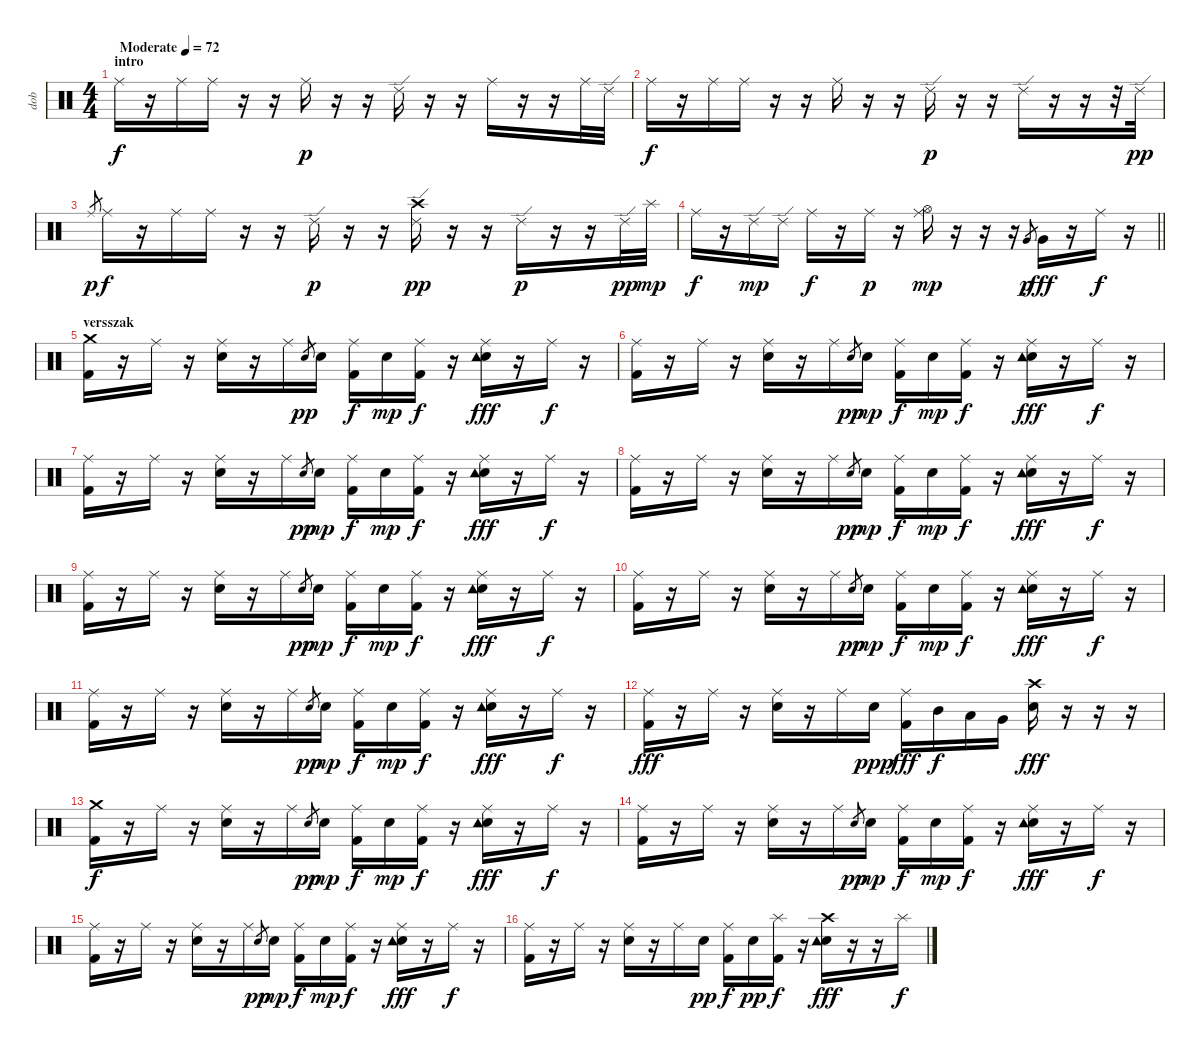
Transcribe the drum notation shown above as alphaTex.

\track ("dob" "dob") {instrument percussion}
\staff {score}
\articulation defaults
\ts (4 4)
\section ("" "intro")
\tempo (72 "Moderate")
\clef neutral
\ks c "Ride (middle)".16{dy f}
r.16 "Ride (middle)".16 "Ride (middle)".16 r.16 r.16 "Ride (middle)".16{dy p} r.16 r.16 "Ride (edge) 2".16 r.16 r.16 "Ride (middle)".16 r.16 r.16 "Ride (middle)".32 "Ride (edge) 2".32 |
"Ride (middle)".16{dy f} r.16 "Ride (middle)".16 "Ride (middle)".16 r.16 r.16 "Ride (middle)".16 r.16 r.16 "Ride (edge) 2".16{dy p} r.16 r.16 "Ride (edge) 2".16 r.16 r.16 r.32 "Ride (edge) 2".32{dy pp} |
"Ride (middle)".8{gr dy p} "Ride (middle)".16{dy f} r.16 "Ride (middle)".16 "Ride (middle)".16 r.16 r.16 "Ride (edge) 2".16{dy p} r.16 r.16 ("Ride (edge) 2" "Crash high (hit)").16{dy pp} r.16 r.16 "Ride (edge) 2".16{dy p} r.16 r.16 "Ride (edge) 2".32{dy pp} "Splash (hit)".32{dy mp} |
\barLineRight lightlight "Ride (middle)".16{dy f}
r.16 "Ride (edge) 2".16{dy mp} "Ride (edge) 2".16 "Ride (middle)".16{dy f} r.16 "Ride (middle)".16{dy p} r.16 ("Ride (middle)" "Hi-Hat (open)").16{dy mp} r.16 r.16 r.16 "Very Low Tom (hit)".8{gr dy p} "Very Low Tom (hit)".16{dy fff} r.16 "Ride (middle)".16{dy f} r.16 |
\section ("" "versszak")
("Kick (hit) 2" "Crash medium (hit)").16 r.16 "Ride (middle)".16 r.16 ("Ride (middle)" "Snare (hit) 2").16 r.16 "Ride (middle)".16 "Snare (hit) 2".8{gr dy pp} "Snare (hit) 2".16 ("Ride (middle)" "Kick (hit) 2").16{dy f} "Snare (hit) 2".16{dy mp} ("Ride (middle)" "Kick (hit) 2").16{dy f} r.16 ("Ride (middle)" "Snare (hit) 2" "Tambourine (hit)").16{dy fff} r.16 "Ride (middle)".16{dy f} r.16 |
("Kick (hit) 2" "Ride (middle)").16 r.16 "Ride (middle)".16 r.16 ("Ride (middle)" "Snare (hit) 2").16 r.16 "Ride (middle)".16 "Snare (hit) 2".8{gr dy pp} "Snare (hit) 2".16{dy mp} ("Ride (middle)" "Kick (hit) 2").16{dy f} "Snare (hit) 2".16{dy mp} ("Ride (middle)" "Kick (hit) 2").16{dy f} r.16 ("Ride (middle)" "Snare (hit) 2" "Tambourine (hit)").16{dy fff} r.16 "Ride (middle)".16{dy f} r.16 |
("Kick (hit) 2" "Ride (middle)").16 r.16 "Ride (middle)".16 r.16 ("Ride (middle)" "Snare (hit) 2").16 r.16 "Ride (middle)".16 "Snare (hit) 2".8{gr dy pp} "Snare (hit) 2".16{dy mp} ("Ride (middle)" "Kick (hit) 2").16{dy f} "Snare (hit) 2".16{dy mp} ("Ride (middle)" "Kick (hit) 2").16{dy f} r.16 ("Ride (middle)" "Snare (hit) 2" "Tambourine (hit)").16{dy fff} r.16 "Ride (middle)".16{dy f} r.16 |
("Kick (hit) 2" "Ride (middle)").16 r.16 "Ride (middle)".16 r.16 ("Ride (middle)" "Snare (hit) 2").16 r.16 "Ride (middle)".16 "Snare (hit) 2".8{gr dy pp} "Snare (hit) 2".16{dy mp} ("Ride (middle)" "Kick (hit) 2").16{dy f} "Snare (hit) 2".16{dy mp} ("Ride (middle)" "Kick (hit) 2").16{dy f} r.16 ("Ride (middle)" "Snare (hit) 2" "Tambourine (hit)").16{dy fff} r.16 "Ride (middle)".16{dy f} r.16 |
("Kick (hit) 2" "Ride (middle)").16 r.16 "Ride (middle)".16 r.16 ("Ride (middle)" "Snare (hit) 2").16 r.16 "Ride (middle)".16 "Snare (hit) 2".8{gr dy pp} "Snare (hit) 2".16{dy mp} ("Ride (middle)" "Kick (hit) 2").16{dy f} "Snare (hit) 2".16{dy mp} ("Ride (middle)" "Kick (hit) 2").16{dy f} r.16 ("Ride (middle)" "Snare (hit) 2" "Tambourine (hit)").16{dy fff} r.16 "Ride (middle)".16{dy f} r.16 |
("Kick (hit) 2" "Ride (middle)").16 r.16 "Ride (middle)".16 r.16 ("Ride (middle)" "Snare (hit) 2").16 r.16 "Ride (middle)".16 "Snare (hit) 2".8{gr dy pp} "Snare (hit) 2".16{dy mp} ("Ride (middle)" "Kick (hit) 2").16{dy f} "Snare (hit) 2".16{dy mp} ("Ride (middle)" "Kick (hit) 2").16{dy f} r.16 ("Ride (middle)" "Snare (hit) 2" "Tambourine (hit)").16{dy fff} r.16 "Ride (middle)".16{dy f} r.16 |
("Kick (hit) 2" "Ride (middle)").16 r.16 "Ride (middle)".16 r.16 ("Ride (middle)" "Snare (hit) 2").16 r.16 "Ride (middle)".16 "Snare (hit) 2".8{gr dy pp} "Snare (hit) 2".16{dy mp} ("Ride (middle)" "Kick (hit) 2").16{dy f} "Snare (hit) 2".16{dy mp} ("Ride (middle)" "Kick (hit) 2").16{dy f} r.16 ("Ride (middle)" "Snare (hit) 2" "Tambourine (hit)").16{dy fff} r.16 "Ride (middle)".16{dy f} r.16 |
("Ride (middle)" "Kick (hit) 2").16{dy fff} r.16 "Ride (middle)".16 r.16 ("Ride (middle)" "Snare (hit) 2").16 r.16 "Ride (middle)".16 "Snare (hit) 2".16{dy ppp} ("Ride (middle)" "Kick (hit) 2").16{dy fff} "Mid Tom (hit)".16{dy f} "Low Tom (hit)".16 "Very Low Tom (hit)".16 ("Snare (hit) 2" "Crash high (hit)").16{dy fff} r.16 r.16 r.16 |
("Kick (hit) 2" "Crash medium (hit)").16{dy f} r.16 "Ride (middle)".16 r.16 ("Ride (middle)" "Snare (hit) 2").16 r.16 "Ride (middle)".16 "Snare (hit) 2".8{gr dy pp} "Snare (hit) 2".16{dy mp} ("Ride (middle)" "Kick (hit) 2").16{dy f} "Snare (hit) 2".16{dy mp} ("Ride (middle)" "Kick (hit) 2").16{dy f} r.16 ("Ride (middle)" "Snare (hit) 2" "Tambourine (hit)").16{dy fff} r.16 "Ride (middle)".16{dy f} r.16 |
("Kick (hit) 2" "Ride (middle)").16 r.16 "Ride (middle)".16 r.16 ("Ride (middle)" "Snare (hit) 2").16 r.16 "Ride (middle)".16 "Snare (hit) 2".8{gr dy pp} "Snare (hit) 2".16{dy mp} ("Ride (middle)" "Kick (hit) 2").16{dy f} "Snare (hit) 2".16{dy mp} ("Ride (middle)" "Kick (hit) 2").16{dy f} r.16 ("Ride (middle)" "Snare (hit) 2" "Tambourine (hit)").16{dy fff} r.16 "Ride (middle)".16{dy f} r.16 |
("Kick (hit) 2" "Ride (middle)").16 r.16 "Ride (middle)".16 r.16 ("Ride (middle)" "Snare (hit) 2").16 r.16 "Ride (middle)".16 "Snare (hit) 2".8{gr dy pp} "Snare (hit) 2".16{dy mp} ("Ride (middle)" "Kick (hit) 2").16{dy f} "Snare (hit) 2".16{dy mp} ("Ride (middle)" "Kick (hit) 2").16{dy f} r.16 ("Ride (middle)" "Snare (hit) 2" "Tambourine (hit)").16{dy fff} r.16 "Ride (middle)".16{dy f} r.16 |
("Kick (hit) 2" "Ride (middle)").16 r.16 "Ride (middle)".16 r.16 ("Ride (middle)" "Snare (hit) 2").16 r.16 "Ride (middle)".16 "Snare (hit) 2".16{dy pp} ("Ride (middle)" "Kick (hit) 2").16{dy f} "Snare (hit) 2".16{dy pp} ("Splash (hit)" "Kick (hit) 2").16{dy f} r.16 ("Snare (hit) 2" "Tambourine (hit)" "Crash high (hit)").16{dy fff} r.16 r.16 "Splash (hit)".16{dy f}
